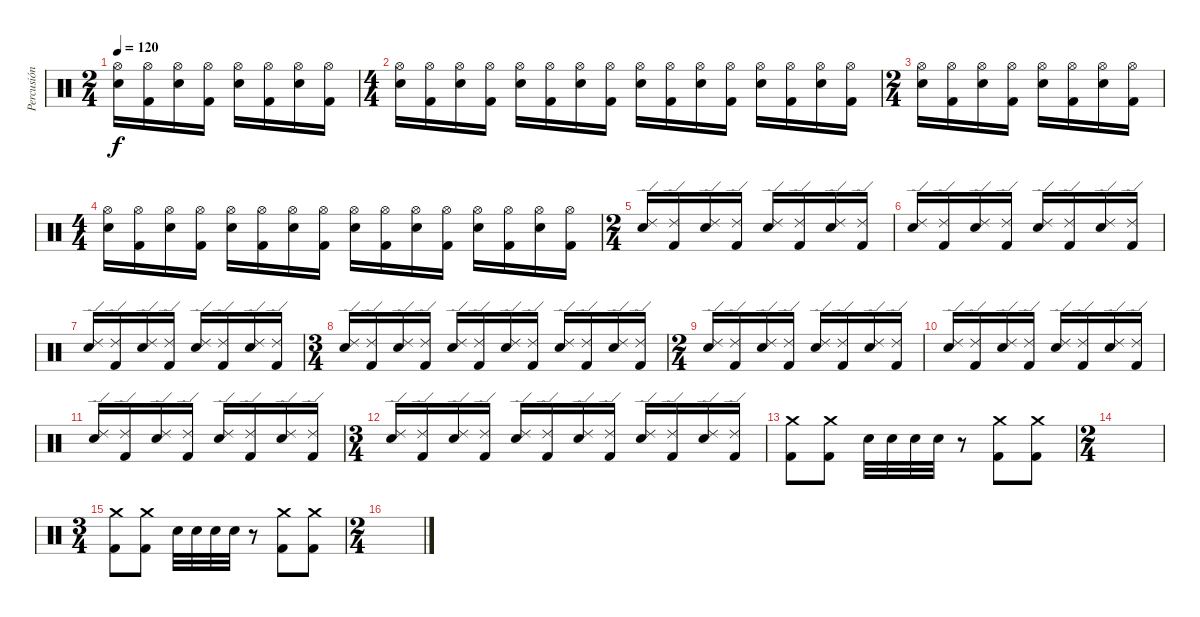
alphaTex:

\track ("Percusión" "Percusión") {instrument percussion}
\staff {score}
\articulation defaults
\ts (2 4)
\tempo 120
\clef neutral
\ks c
("Hi-Hat (open)" "Snare (hit) 2").16{dy f} ("Hi-Hat (open)" "Kick (hit) 2").16 ("Hi-Hat (open)" "Snare (hit) 2").16 ("Hi-Hat (open)" "Kick (hit) 2").16 ("Hi-Hat (open)" "Snare (hit) 2").16 ("Hi-Hat (open)" "Kick (hit) 2").16 ("Hi-Hat (open)" "Snare (hit) 2").16 ("Hi-Hat (open)" "Kick (hit) 2").16 |
\ts (4 4)
("Snare (hit) 2" "Hi-Hat (open)").16 ("Kick (hit) 2" "Hi-Hat (open)").16 ("Snare (hit) 2" "Hi-Hat (open)").16 ("Kick (hit) 2" "Hi-Hat (open)").16 ("Snare (hit) 2" "Hi-Hat (open)").16 ("Kick (hit) 2" "Hi-Hat (open)").16 ("Snare (hit) 2" "Hi-Hat (open)").16 ("Kick (hit) 2" "Hi-Hat (open)").16 ("Snare (hit) 2" "Hi-Hat (open)").16 ("Kick (hit) 2" "Hi-Hat (open)").16 ("Snare (hit) 2" "Hi-Hat (open)").16 ("Kick (hit) 2" "Hi-Hat (open)").16 ("Snare (hit) 2" "Hi-Hat (open)").16 ("Kick (hit) 2" "Hi-Hat (open)").16 ("Snare (hit) 2" "Hi-Hat (open)").16 ("Kick (hit) 2" "Hi-Hat (open)").16 |
\ts (2 4)
("Hi-Hat (open)" "Snare (hit) 2").16 ("Hi-Hat (open)" "Kick (hit) 2").16 ("Hi-Hat (open)" "Snare (hit) 2").16 ("Hi-Hat (open)" "Kick (hit) 2").16 ("Hi-Hat (open)" "Snare (hit) 2").16 ("Hi-Hat (open)" "Kick (hit) 2").16 ("Hi-Hat (open)" "Snare (hit) 2").16 ("Hi-Hat (open)" "Kick (hit) 2").16 |
\ts (4 4)
("Snare (hit) 2" "Hi-Hat (open)").16 ("Kick (hit) 2" "Hi-Hat (open)").16 ("Snare (hit) 2" "Hi-Hat (open)").16 ("Kick (hit) 2" "Hi-Hat (open)").16 ("Snare (hit) 2" "Hi-Hat (open)").16 ("Kick (hit) 2" "Hi-Hat (open)").16 ("Snare (hit) 2" "Hi-Hat (open)").16 ("Kick (hit) 2" "Hi-Hat (open)").16 ("Snare (hit) 2" "Hi-Hat (open)").16 ("Kick (hit) 2" "Hi-Hat (open)").16 ("Snare (hit) 2" "Hi-Hat (open)").16 ("Kick (hit) 2" "Hi-Hat (open)").16 ("Snare (hit) 2" "Hi-Hat (open)").16 ("Kick (hit) 2" "Hi-Hat (open)").16 ("Snare (hit) 2" "Hi-Hat (open)").16 ("Kick (hit) 2" "Hi-Hat (open)").16 |
\ts (2 4)
("Ride (edge) 2" "Snare (hit) 2").16 ("Ride (edge) 2" "Kick (hit) 2").16 ("Ride (edge) 2" "Snare (hit) 2").16 ("Ride (edge) 2" "Kick (hit) 2").16 ("Ride (edge) 2" "Snare (hit) 2").16 ("Ride (edge) 2" "Kick (hit) 2").16 ("Ride (edge) 2" "Snare (hit) 2").16 ("Ride (edge) 2" "Kick (hit) 2").16 |
("Ride (edge) 2" "Snare (hit) 2").16 ("Ride (edge) 2" "Kick (hit) 2").16 ("Ride (edge) 2" "Snare (hit) 2").16 ("Ride (edge) 2" "Kick (hit) 2").16 ("Ride (edge) 2" "Snare (hit) 2").16 ("Ride (edge) 2" "Kick (hit) 2").16 ("Ride (edge) 2" "Snare (hit) 2").16 ("Ride (edge) 2" "Kick (hit) 2").16 |
("Ride (edge) 2" "Snare (hit) 2").16 ("Ride (edge) 2" "Kick (hit) 2").16 ("Ride (edge) 2" "Snare (hit) 2").16 ("Ride (edge) 2" "Kick (hit) 2").16 ("Ride (edge) 2" "Snare (hit) 2").16 ("Ride (edge) 2" "Kick (hit) 2").16 ("Ride (edge) 2" "Snare (hit) 2").16 ("Ride (edge) 2" "Kick (hit) 2").16 |
\ts (3 4)
("Snare (hit) 2" "Ride (edge) 2").16 ("Kick (hit) 2" "Ride (edge) 2").16 ("Snare (hit) 2" "Ride (edge) 2").16 ("Kick (hit) 2" "Ride (edge) 2").16 ("Snare (hit) 2" "Ride (edge) 2").16 ("Kick (hit) 2" "Ride (edge) 2").16 ("Snare (hit) 2" "Ride (edge) 2").16 ("Kick (hit) 2" "Ride (edge) 2").16 ("Snare (hit) 2" "Ride (edge) 2").16 ("Kick (hit) 2" "Ride (edge) 2").16 ("Snare (hit) 2" "Ride (edge) 2").16 ("Kick (hit) 2" "Ride (edge) 2").16 |
\ts (2 4)
("Ride (edge) 2" "Snare (hit) 2").16 ("Ride (edge) 2" "Kick (hit) 2").16 ("Ride (edge) 2" "Snare (hit) 2").16 ("Ride (edge) 2" "Kick (hit) 2").16 ("Ride (edge) 2" "Snare (hit) 2").16 ("Ride (edge) 2" "Kick (hit) 2").16 ("Ride (edge) 2" "Snare (hit) 2").16 ("Ride (edge) 2" "Kick (hit) 2").16 |
("Ride (edge) 2" "Snare (hit) 2").16 ("Ride (edge) 2" "Kick (hit) 2").16 ("Ride (edge) 2" "Snare (hit) 2").16 ("Ride (edge) 2" "Kick (hit) 2").16 ("Ride (edge) 2" "Snare (hit) 2").16 ("Ride (edge) 2" "Kick (hit) 2").16 ("Ride (edge) 2" "Snare (hit) 2").16 ("Ride (edge) 2" "Kick (hit) 2").16 |
("Ride (edge) 2" "Snare (hit) 2").16 ("Ride (edge) 2" "Kick (hit) 2").16 ("Ride (edge) 2" "Snare (hit) 2").16 ("Ride (edge) 2" "Kick (hit) 2").16 ("Ride (edge) 2" "Snare (hit) 2").16 ("Ride (edge) 2" "Kick (hit) 2").16 ("Ride (edge) 2" "Snare (hit) 2").16 ("Ride (edge) 2" "Kick (hit) 2").16 |
\ts (3 4)
("Snare (hit) 2" "Ride (edge) 2").16 ("Kick (hit) 2" "Ride (edge) 2").16 ("Snare (hit) 2" "Ride (edge) 2").16 ("Kick (hit) 2" "Ride (edge) 2").16 ("Snare (hit) 2" "Ride (edge) 2").16 ("Kick (hit) 2" "Ride (edge) 2").16 ("Snare (hit) 2" "Ride (edge) 2").16 ("Kick (hit) 2" "Ride (edge) 2").16 ("Snare (hit) 2" "Ride (edge) 2").16 ("Kick (hit) 2" "Ride (edge) 2").16 ("Snare (hit) 2" "Ride (edge) 2").16 ("Kick (hit) 2" "Ride (edge) 2").16 |
("Kick (hit) 2" "Crash medium (hit)").8 ("Kick (hit) 2" "Crash medium (hit)").8 "Snare (hit) 2".32 "Snare (hit) 2".32 "Snare (hit) 2".32 "Snare (hit) 2".32 r.8 ("Kick (hit) 2" "Crash medium (hit)").8 ("Kick (hit) 2" "Crash medium (hit)").8 |
\ts (2 4)
|
\ts (3 4)
("Kick (hit) 2" "Crash medium (hit)").8 ("Kick (hit) 2" "Crash medium (hit)").8 "Snare (hit) 2".32 "Snare (hit) 2".32 "Snare (hit) 2".32 "Snare (hit) 2".32 r.8 ("Kick (hit) 2" "Crash medium (hit)").8 ("Kick (hit) 2" "Crash medium (hit)").8 |
\ts (2 4)
